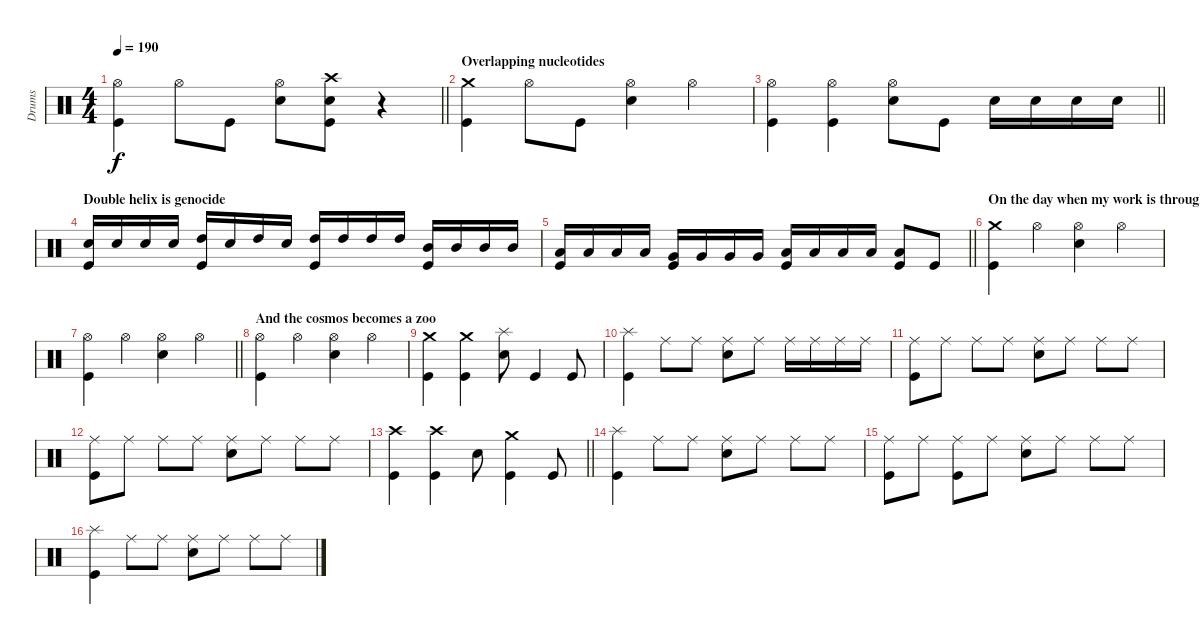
\track ("Drums" "Drums") {instrument percussion}
\staff {score}
\articulation defaults
\ts (4 4)
\tempo 190
\clef neutral
\barLineRight lightlight
\ks c
("Hi-Hat (open)" "Kick (hit)").4{dy f} "Hi-Hat (open)".8 "Kick (hit)".8 ("Hi-Hat (open)" "Snare (hit) 2").8 ("Crash high (hit)" "Snare (hit) 2" "Kick (hit)").8 r.4 |
\section ("" "Overlapping nucleotides ")
("Crash medium (hit)" "Kick (hit)").4 "Hi-Hat (open)".8 "Kick (hit)".8 ("Hi-Hat (open)" "Snare (hit) 2").4 "Hi-Hat (open)".4 |
\barLineRight lightlight
("Hi-Hat (open)" "Kick (hit)").4 ("Hi-Hat (open)" "Kick (hit)").4 ("Hi-Hat (open)" "Snare (hit) 2").8 "Kick (hit)".8 "Snare (hit) 2".16 "Snare (hit) 2".16 "Snare (hit) 2".16 "Snare (hit) 2".16 |
\section ("" "Double helix is genocide ")
("Snare (hit) 2" "Kick (hit)").16 "Snare (hit) 2".16 "Snare (hit) 2".16 "Snare (hit) 2".16 ("High Tom (hit)" "Kick (hit)").16 "Snare (hit) 2".16 "High Tom (hit)".16 "Snare (hit) 2".16 ("High Tom (hit)" "Kick (hit)").16 "High Tom (hit)".16 "High Tom (hit)".16 "High Tom (hit)".16 ("Mid Tom (hit)" "Kick (hit)").16 "Mid Tom (hit)".16 "Mid Tom (hit)".16 "Mid Tom (hit)".16 |
\barLineRight lightlight
("Low Tom (hit)" "Kick (hit)").16 "Low Tom (hit)".16 "Low Tom (hit)".16 "Low Tom (hit)".16 ("Very Low Tom (hit)" "Kick (hit)").16 "Very Low Tom (hit)".16 "Very Low Tom (hit)".16 "Very Low Tom (hit)".16 ("Low Floor Tom (hit)" "Kick (hit)").16 "Low Floor Tom (hit)".16 "Low Floor Tom (hit)".16 "Low Floor Tom (hit)".16 ("Low Floor Tom (hit)" "Kick (hit)").8 "Kick (hit)".8 |
\section ("" "On the day when my work is through ")
("Crash medium (hit)" "Kick (hit)").4 "Hi-Hat (open)".4 ("Hi-Hat (open)" "Snare (hit) 2").4 "Hi-Hat (open)".4 |
\barLineRight lightlight
("Hi-Hat (open)" "Kick (hit)").4 "Hi-Hat (open)".4 ("Hi-Hat (open)" "Snare (hit) 2").4 "Hi-Hat (open)".4 |
\section ("" "And the cosmos becomes a zoo")
("Hi-Hat (open)" "Kick (hit)").4 "Hi-Hat (open)".4 ("Hi-Hat (open)" "Snare (hit) 2").4 "Hi-Hat (open)".4 |
("Crash medium (hit)" "Kick (hit)").4 ("Crash medium (hit)" "Kick (hit)").4 ("Splash (hit)" "Snare (hit) 2").8 "Kick (hit)".4 "Kick (hit)".8 |
("Splash (hit)" "Kick (hit)").4 "Ride (middle)".8 "Ride (middle)".8 ("Ride (middle)" "Snare (hit) 2").8 "Ride (middle)".8 "Ride (middle)".16 "Ride (middle)".16 "Ride (middle)".16 "Ride (middle)".16 |
("Ride (middle)" "Kick (hit)").8 "Ride (middle)".8 "Ride (middle)".8 "Ride (middle)".8 ("Ride (middle)" "Snare (hit) 2").8 "Ride (middle)".8 "Ride (middle)".8 "Ride (middle)".8 |
("Ride (middle)" "Kick (hit)").8 "Ride (middle)".8 "Ride (middle)".8 "Ride (middle)".8 ("Ride (middle)" "Snare (hit) 2").8 "Ride (middle)".8 "Ride (middle)".8 "Ride (middle)".8 |
\barLineRight lightlight
("Crash high (hit)" "Kick (hit)").4 ("Crash high (hit)" "Kick (hit)").4 "Snare (hit) 2".8 ("Crash medium (hit)" "Kick (hit)").4 "Kick (hit)".8 |
("Splash (hit)" "Kick (hit)").4 "Ride (middle)".8 "Ride (middle)".8 ("Ride (middle)" "Snare (hit) 2").8 "Ride (middle)".8 "Ride (middle)".8 "Ride (middle)".8 |
("Ride (middle)" "Kick (hit)").8 "Ride (middle)".8 ("Ride (middle)" "Kick (hit)").8 "Ride (middle)".8 ("Ride (middle)" "Snare (hit) 2").8 "Ride (middle)".8 "Ride (middle)".8 "Ride (middle)".8 |
("Splash (hit)" "Kick (hit)").4 "Ride (middle)".8 "Ride (middle)".8 ("Ride (middle)" "Snare (hit) 2").8 "Ride (middle)".8 "Ride (middle)".8 "Ride (middle)".8
